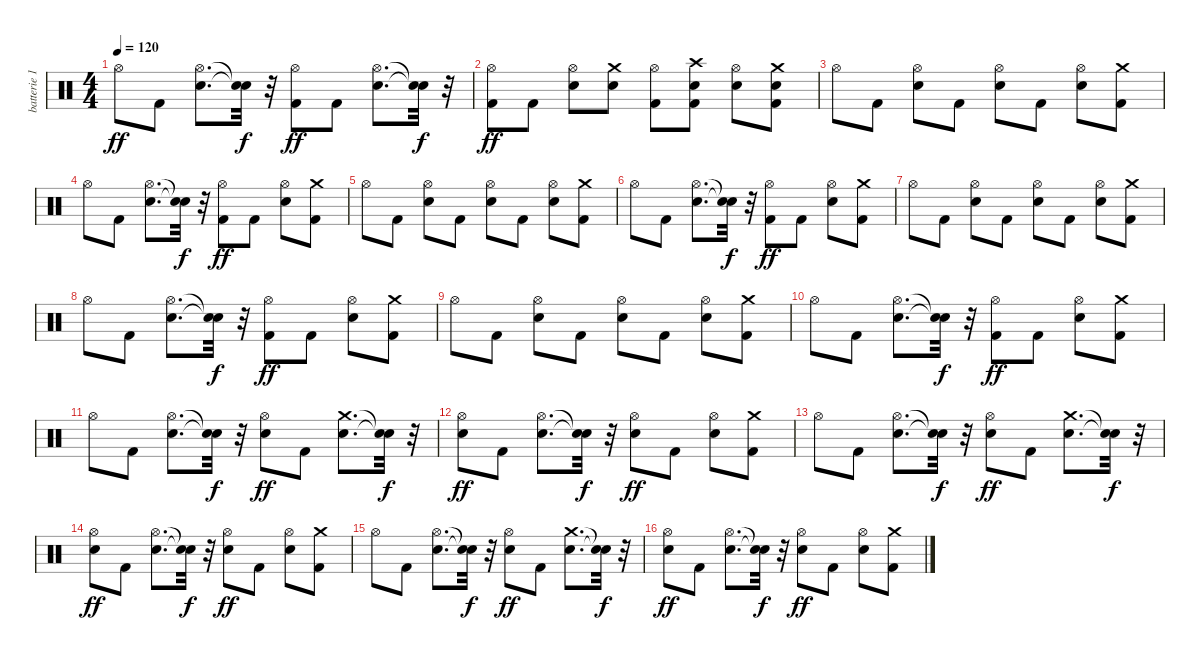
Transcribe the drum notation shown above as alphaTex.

\track ("batterie 1" "batterie 1") {instrument percussion}
\staff {score}
\articulation defaults
\ts (4 4)
\tempo 120
\clef neutral
\ks c "Hi-Hat (open)".8{dy ff} "Kick (hit) 2".8
("Electric Snare (hit)" "Hi-Hat (open)").8{d} ("Snare (hit)"{t} "Snare (hit)"{t}).32{dy f} r.32 ("Kick (hit) 2" "Hi-Hat (open)").8{dy ff} "Kick (hit) 2".8 ("Electric Snare (hit)" "Hi-Hat (open)").8{d} ("Snare (hit)"{t} "Snare (hit)"{t}).32{dy f} r.32 |
("Kick (hit) 2" "Hi-Hat (open)").8{dy ff} "Kick (hit) 2".8 ("Electric Snare (hit)" "Hi-Hat (open)").8 ("Electric Snare (hit)" "Crash medium (hit)").8 ("Kick (hit) 2" "Hi-Hat (open)").8 ("Kick (hit) 2" "Electric Snare (hit)" "Crash high (hit)").8 ("Electric Snare (hit)" "Hi-Hat (open)").8 ("Kick (hit) 2" "Electric Snare (hit)" "Crash medium (hit)").8 |
"Hi-Hat (open)".8 "Kick (hit) 2".8 ("Electric Snare (hit)" "Hi-Hat (open)").8 "Kick (hit) 2".8 ("Electric Snare (hit)" "Hi-Hat (open)").8 "Kick (hit) 2".8 ("Electric Snare (hit)" "Hi-Hat (open)").8 ("Kick (hit) 2" "Crash medium (hit)").8 |
"Hi-Hat (open)".8 "Kick (hit) 2".8 ("Electric Snare (hit)" "Hi-Hat (open)").8{d} ("Snare (hit)"{t} "Snare (hit)"{t}).32{dy f} r.32 ("Kick (hit) 2" "Hi-Hat (open)").8{dy ff} "Kick (hit) 2".8 ("Electric Snare (hit)" "Hi-Hat (open)").8 ("Kick (hit) 2" "Crash medium (hit)").8 |
"Hi-Hat (open)".8 "Kick (hit) 2".8 ("Electric Snare (hit)" "Hi-Hat (open)").8 "Kick (hit) 2".8 ("Electric Snare (hit)" "Hi-Hat (open)").8 "Kick (hit) 2".8 ("Electric Snare (hit)" "Hi-Hat (open)").8 ("Kick (hit) 2" "Crash medium (hit)").8 |
"Hi-Hat (open)".8 "Kick (hit) 2".8 ("Electric Snare (hit)" "Hi-Hat (open)").8{d} ("Snare (hit)"{t} "Snare (hit)"{t}).32{dy f} r.32 ("Kick (hit) 2" "Hi-Hat (open)").8{dy ff} "Kick (hit) 2".8 ("Electric Snare (hit)" "Hi-Hat (open)").8 ("Kick (hit) 2" "Crash medium (hit)").8 |
"Hi-Hat (open)".8 "Kick (hit) 2".8 ("Electric Snare (hit)" "Hi-Hat (open)").8 "Kick (hit) 2".8 ("Electric Snare (hit)" "Hi-Hat (open)").8 "Kick (hit) 2".8 ("Electric Snare (hit)" "Hi-Hat (open)").8 ("Kick (hit) 2" "Crash medium (hit)").8 |
"Hi-Hat (open)".8 "Kick (hit) 2".8 ("Electric Snare (hit)" "Hi-Hat (open)").8{d} ("Snare (hit)"{t} "Snare (hit)"{t}).32{dy f} r.32 ("Kick (hit) 2" "Hi-Hat (open)").8{dy ff} "Kick (hit) 2".8 ("Electric Snare (hit)" "Hi-Hat (open)").8 ("Kick (hit) 2" "Crash medium (hit)").8 |
"Hi-Hat (open)".8 "Kick (hit) 2".8 ("Electric Snare (hit)" "Hi-Hat (open)").8 "Kick (hit) 2".8 ("Electric Snare (hit)" "Hi-Hat (open)").8 "Kick (hit) 2".8 ("Electric Snare (hit)" "Hi-Hat (open)").8 ("Kick (hit) 2" "Crash medium (hit)").8 |
"Hi-Hat (open)".8 "Kick (hit) 2".8 ("Electric Snare (hit)" "Hi-Hat (open)").8{d} ("Snare (hit)"{t} "Snare (hit)"{t}).32{dy f} r.32 ("Kick (hit) 2" "Hi-Hat (open)").8{dy ff} "Kick (hit) 2".8 ("Electric Snare (hit)" "Hi-Hat (open)").8 ("Kick (hit) 2" "Crash medium (hit)").8 |
"Hi-Hat (open)".8 "Kick (hit) 2".8 ("Electric Snare (hit)" "Hi-Hat (open)").8{d} ("Snare (hit)"{t} "Snare (hit)"{t}).32{dy f} r.32 ("Electric Snare (hit)" "Hi-Hat (open)").8{dy ff} "Kick (hit) 2".8 ("Electric Snare (hit)" "Crash medium (hit)").8{d} ("Snare (hit)"{t} "Snare (hit)"{t}).32{dy f} r.32 |
("Electric Snare (hit)" "Hi-Hat (open)").8{dy ff} "Kick (hit) 2".8 ("Electric Snare (hit)" "Hi-Hat (open)").8{d} ("Snare (hit)"{t} "Snare (hit)"{t}).32{dy f} r.32 ("Electric Snare (hit)" "Hi-Hat (open)").8{dy ff} "Kick (hit) 2".8 ("Electric Snare (hit)" "Hi-Hat (open)").8 ("Kick (hit) 2" "Crash medium (hit)").8 |
"Hi-Hat (open)".8 "Kick (hit) 2".8 ("Electric Snare (hit)" "Hi-Hat (open)").8{d} ("Snare (hit)"{t} "Snare (hit)"{t}).32{dy f} r.32 ("Electric Snare (hit)" "Hi-Hat (open)").8{dy ff} "Kick (hit) 2".8 ("Electric Snare (hit)" "Crash medium (hit)").8{d} ("Snare (hit)"{t} "Snare (hit)"{t}).32{dy f} r.32 |
("Electric Snare (hit)" "Hi-Hat (open)").8{dy ff} "Kick (hit) 2".8 ("Electric Snare (hit)" "Hi-Hat (open)").8{d} ("Snare (hit)"{t} "Snare (hit)"{t}).32{dy f} r.32 ("Electric Snare (hit)" "Hi-Hat (open)").8{dy ff} "Kick (hit) 2".8 ("Electric Snare (hit)" "Hi-Hat (open)").8 ("Kick (hit) 2" "Crash medium (hit)").8 |
"Hi-Hat (open)".8 "Kick (hit) 2".8 ("Electric Snare (hit)" "Hi-Hat (open)").8{d} ("Snare (hit)"{t} "Snare (hit)"{t}).32{dy f} r.32 ("Electric Snare (hit)" "Hi-Hat (open)").8{dy ff} "Kick (hit) 2".8 ("Electric Snare (hit)" "Crash medium (hit)").8{d} ("Snare (hit)"{t} "Snare (hit)"{t}).32{dy f} r.32 |
("Electric Snare (hit)" "Hi-Hat (open)").8{dy ff} "Kick (hit) 2".8 ("Electric Snare (hit)" "Hi-Hat (open)").8{d} ("Snare (hit)"{t} "Snare (hit)"{t}).32{dy f} r.32 ("Electric Snare (hit)" "Hi-Hat (open)").8{dy ff} "Kick (hit) 2".8 ("Electric Snare (hit)" "Hi-Hat (open)").8 ("Kick (hit) 2" "Crash medium (hit)").8
